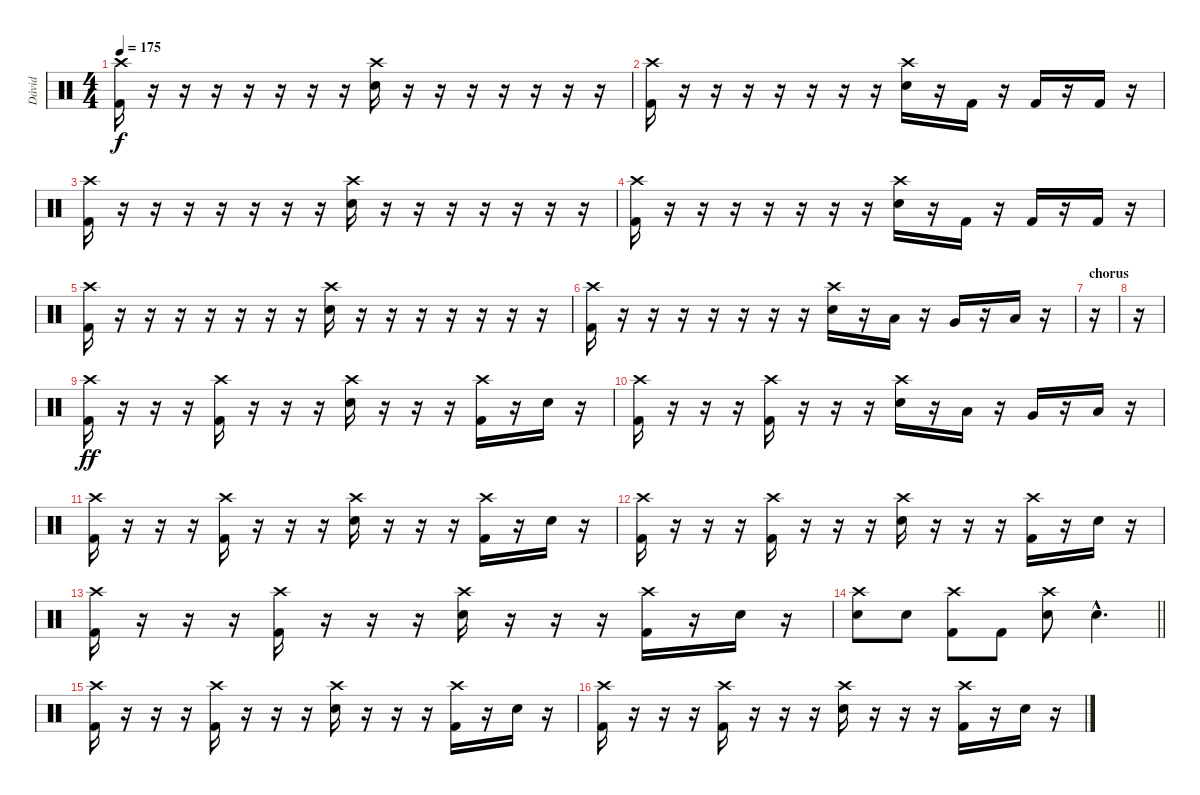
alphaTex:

\track ("Dávid" "Dávid") {instrument percussion}
\staff {score}
\articulation defaults
\ts (4 4)
\tempo 175
\clef neutral
\ks c
("Crash high (hit)" "Kick (hit) 2").16{dy f} r.16 r.16 r.16 r.16 r.16 r.16 r.16 ("Crash high (hit)" "Electric Snare (hit)").16 r.16 r.16 r.16 r.16 r.16 r.16 r.16 |
("Crash high (hit)" "Kick (hit) 2").16 r.16 r.16 r.16 r.16 r.16 r.16 r.16 ("Crash high (hit)" "Electric Snare (hit)").16 r.16 "Kick (hit) 2".16 r.16 "Kick (hit) 2".16 r.16 "Kick (hit) 2".16 r.16 |
("Crash high (hit)" "Kick (hit) 2").16 r.16 r.16 r.16 r.16 r.16 r.16 r.16 ("Crash high (hit)" "Electric Snare (hit)").16 r.16 r.16 r.16 r.16 r.16 r.16 r.16 |
("Crash high (hit)" "Kick (hit) 2").16 r.16 r.16 r.16 r.16 r.16 r.16 r.16 ("Crash high (hit)" "Electric Snare (hit)").16 r.16 "Kick (hit) 2".16 r.16 "Kick (hit) 2".16 r.16 "Kick (hit) 2".16 r.16 |
("Crash high (hit)" "Kick (hit) 2").16 r.16 r.16 r.16 r.16 r.16 r.16 r.16 ("Crash high (hit)" "Electric Snare (hit)").16 r.16 r.16 r.16 r.16 r.16 r.16 r.16 |
("Crash high (hit)" "Kick (hit) 2").16 r.16 r.16 r.16 r.16 r.16 r.16 r.16 ("Crash high (hit)" "Electric Snare (hit)").16 r.16 "Low Tom (hit)".16 r.16 "Very Low Tom (hit)".16 r.16 "Low Floor Tom (hit)".16 r.16 |
\section ("" "chorus")
r.16 |
r.16 |
("Crash high (hit)" "Kick (hit) 2").16{dy ff} r.16 r.16 r.16 ("Crash high (hit)" "Kick (hit) 2").16 r.16 r.16 r.16 ("Crash high (hit)" "Electric Snare (hit)").16 r.16 r.16 r.16 ("Crash high (hit)" "Kick (hit) 2").16 r.16 "Electric Snare (hit)".16 r.16 |
("Crash high (hit)" "Kick (hit) 2").16 r.16 r.16 r.16 ("Crash high (hit)" "Kick (hit) 2").16 r.16 r.16 r.16 ("Crash high (hit)" "Electric Snare (hit)").16 r.16 "Low Tom (hit)".16 r.16 "Very Low Tom (hit)".16 r.16 "Low Floor Tom (hit)".16 r.16 |
("Crash high (hit)" "Kick (hit) 2").16 r.16 r.16 r.16 ("Crash high (hit)" "Kick (hit) 2").16 r.16 r.16 r.16 ("Crash high (hit)" "Electric Snare (hit)").16 r.16 r.16 r.16 ("Crash high (hit)" "Kick (hit) 2").16 r.16 "Electric Snare (hit)".16 r.16 |
("Crash high (hit)" "Kick (hit) 2").16 r.16 r.16 r.16 ("Crash high (hit)" "Kick (hit) 2").16 r.16 r.16 r.16 ("Crash high (hit)" "Electric Snare (hit)").16 r.16 r.16 r.16 ("Crash high (hit)" "Kick (hit) 2").16 r.16 "Electric Snare (hit)".16 r.16 |
("Crash high (hit)" "Kick (hit) 2").16 r.16 r.16 r.16 ("Crash high (hit)" "Kick (hit) 2").16 r.16 r.16 r.16 ("Crash high (hit)" "Electric Snare (hit)").16 r.16 r.16 r.16 ("Crash high (hit)" "Kick (hit) 2").16 r.16 "Electric Snare (hit)".16 r.16 |
\barLineRight lightlight
("Crash high (hit)" "Electric Snare (hit)").8 "Electric Snare (hit)".8 ("Crash high (hit)" "Kick (hit) 2").8 "Kick (hit) 2".8 ("Crash high (hit)" "Electric Snare (hit)").8 "Electric Snare (hit)"{hac}.4{d} |
("Crash high (hit)" "Kick (hit) 2").16 r.16 r.16 r.16 ("Crash high (hit)" "Kick (hit) 2").16 r.16 r.16 r.16 ("Crash high (hit)" "Electric Snare (hit)").16 r.16 r.16 r.16 ("Crash high (hit)" "Kick (hit) 2").16 r.16 "Electric Snare (hit)".16 r.16 |
("Crash high (hit)" "Kick (hit) 2").16 r.16 r.16 r.16 ("Crash high (hit)" "Kick (hit) 2").16 r.16 r.16 r.16 ("Crash high (hit)" "Electric Snare (hit)").16 r.16 r.16 r.16 ("Crash high (hit)" "Kick (hit) 2").16 r.16 "Electric Snare (hit)".16 r.16
